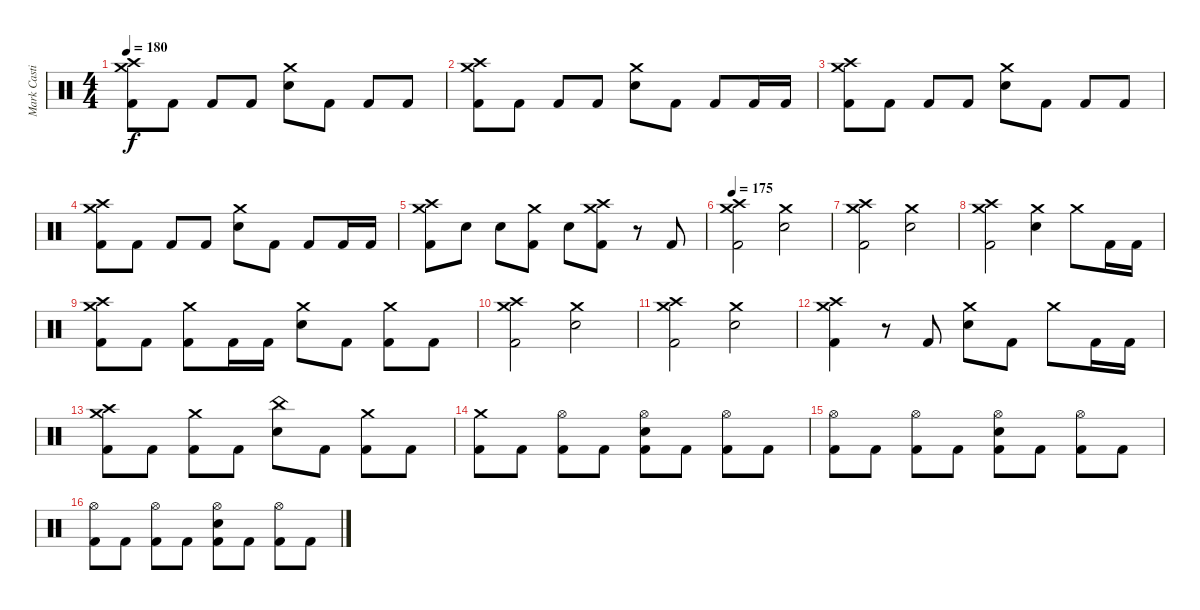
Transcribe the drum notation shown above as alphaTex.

\track ("Mark Castillo" "Mark Casti") {instrument percussion}
\staff {score}
\articulation defaults
\ts (4 4)
\tempo 180
\clef neutral
\ks c
("Kick (hit) 2" "Crash medium (hit)" "Crash high (hit)").8{dy f} "Kick (hit) 2".8 "Kick (hit) 2".8 "Kick (hit) 2".8 ("Electric Snare (hit)" "Crash medium (hit)").8 "Kick (hit) 2".8 "Kick (hit) 2".8 "Kick (hit) 2".8 |
("Kick (hit) 2" "Crash medium (hit)" "Crash high (hit)").8 "Kick (hit) 2".8 "Kick (hit) 2".8 "Kick (hit) 2".8 ("Electric Snare (hit)" "Crash medium (hit)").8 "Kick (hit) 2".8 "Kick (hit) 2".8 "Kick (hit) 2".16 "Kick (hit) 2".16 |
("Kick (hit) 2" "Crash medium (hit)" "Crash high (hit)").8 "Kick (hit) 2".8 "Kick (hit) 2".8 "Kick (hit) 2".8 ("Electric Snare (hit)" "Crash medium (hit)").8 "Kick (hit) 2".8 "Kick (hit) 2".8 "Kick (hit) 2".8 |
("Kick (hit) 2" "Crash medium (hit)" "Crash high (hit)").8 "Kick (hit) 2".8 "Kick (hit) 2".8 "Kick (hit) 2".8 ("Electric Snare (hit)" "Crash medium (hit)").8 "Kick (hit) 2".8 "Kick (hit) 2".8 "Kick (hit) 2".16 "Kick (hit) 2".16 |
("Kick (hit) 2" "Crash medium (hit)" "Crash high (hit)").8 "Electric Snare (hit)".8 "Electric Snare (hit)".8 ("Kick (hit) 2" "Crash medium (hit)").8 "Electric Snare (hit)".8 ("Kick (hit) 2" "Crash medium (hit)" "Crash high (hit)").8 r.8 "Kick (hit) 2".8 |
\tempo 175
("Kick (hit) 2" "Crash medium (hit)" "Crash high (hit)").2 ("Electric Snare (hit)" "Crash medium (hit)").2 |
("Kick (hit) 2" "Crash medium (hit)" "Crash high (hit)").2 ("Electric Snare (hit)" "Crash medium (hit)").2 |
("Kick (hit) 2" "Crash medium (hit)" "Crash high (hit)").2 ("Electric Snare (hit)" "Crash medium (hit)").4 "Crash medium (hit)".8 "Kick (hit) 2".16 "Kick (hit) 2".16 |
("Kick (hit) 2" "Crash medium (hit)" "Crash high (hit)").8 "Kick (hit) 2".8 ("Kick (hit) 2" "Crash medium (hit)").8 "Kick (hit) 2".16 "Kick (hit) 2".16 ("Electric Snare (hit)" "Crash medium (hit)").8 "Kick (hit) 2".8 ("Kick (hit) 2" "Crash medium (hit)").8 "Kick (hit) 2".8 |
("Kick (hit) 2" "Crash medium (hit)" "Crash high (hit)").2 ("Electric Snare (hit)" "Crash medium (hit)").2 |
("Kick (hit) 2" "Crash medium (hit)" "Crash high (hit)").2 ("Electric Snare (hit)" "Crash medium (hit)").2 |
("Kick (hit) 2" "Crash medium (hit)" "Crash high (hit)").4 r.8 "Kick (hit) 2".8 ("Electric Snare (hit)" "Crash medium (hit)").8 "Kick (hit) 2".8 "Crash medium (hit)".8 "Kick (hit) 2".16 "Kick (hit) 2".16 |
("Kick (hit) 2" "Crash medium (hit)" "Crash high (hit)").8 "Kick (hit) 2".8 ("Kick (hit) 2" "Crash medium (hit)").8 "Kick (hit) 2".8 ("Electric Snare (hit)" "China (hit)").8 "Kick (hit) 2".8 ("Kick (hit) 2" "Crash medium (hit)").8 "Kick (hit) 2".8 |
("Kick (hit) 2" "Crash medium (hit)").8 "Kick (hit) 2".8 ("Kick (hit) 2" "Hi-Hat (open)").8 "Kick (hit) 2".8 ("Kick (hit) 2" "Electric Snare (hit)" "Hi-Hat (open)").8 "Kick (hit) 2".8 ("Kick (hit) 2" "Hi-Hat (open)").8 "Kick (hit) 2".8 |
("Kick (hit) 2" "Hi-Hat (open)").8 "Kick (hit) 2".8 ("Kick (hit) 2" "Hi-Hat (open)").8 "Kick (hit) 2".8 ("Kick (hit) 2" "Electric Snare (hit)" "Hi-Hat (open)").8 "Kick (hit) 2".8 ("Kick (hit) 2" "Hi-Hat (open)").8 "Kick (hit) 2".8 |
("Kick (hit) 2" "Hi-Hat (open)").8 "Kick (hit) 2".8 ("Kick (hit) 2" "Hi-Hat (open)").8 "Kick (hit) 2".8 ("Kick (hit) 2" "Electric Snare (hit)" "Hi-Hat (open)").8 "Kick (hit) 2".8 ("Kick (hit) 2" "Hi-Hat (open)").8 "Kick (hit) 2".8
